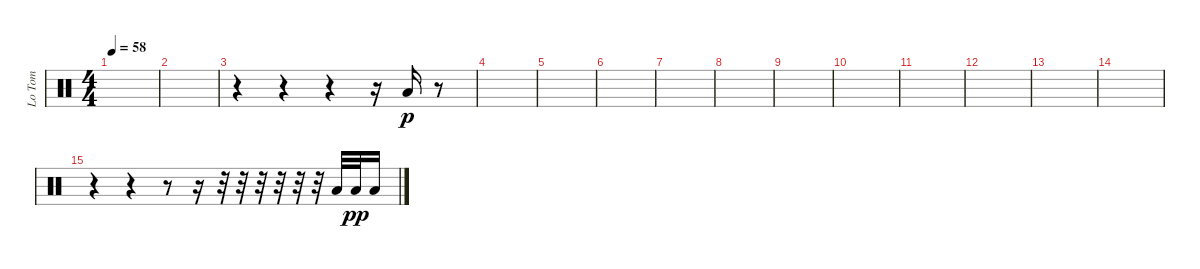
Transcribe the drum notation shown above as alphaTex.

\track ("Lo Tom" "Lo Tom") {instrument percussion}
\staff {score}
\articulation defaults
\ts (4 4)
\tempo 58
\clef neutral
\ks c
|
|
r.4 r.4 r.4 r.16 "Low Tom (hit)".16{dy p} r.8 |
|
|
|
|
|
|
|
|
|
|
|
r.4 r.4 r.8 r.16 r.32 r.32 r.32 r.32 r.32 r.32 "Low Tom (hit)".32 "Low Tom (hit)".32{dy pp} "Low Tom (hit)".16
